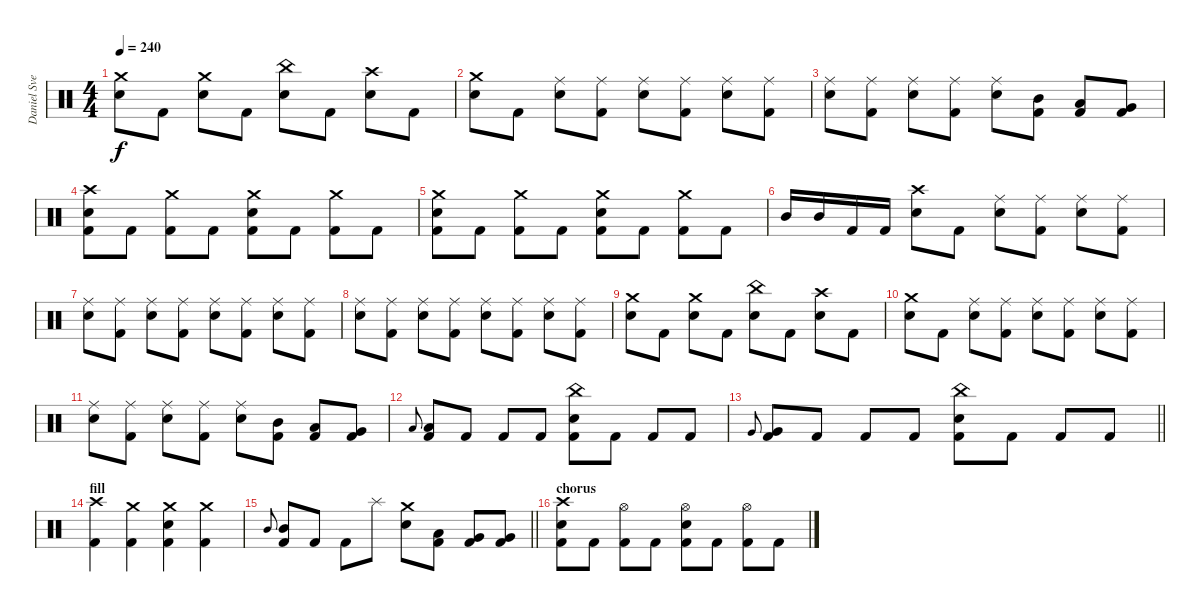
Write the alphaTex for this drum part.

\track ("Daniel Svensson" "Daniel Sve") {instrument percussion}
\staff {score}
\articulation defaults
\ts (4 4)
\tempo 240
\clef neutral
\ks c
("Crash medium (hit)" "Electric Snare (hit)").8{dy f} "Kick (hit) 2".8 ("Crash medium (hit)" "Electric Snare (hit)").8 "Kick (hit) 2".8 ("China (hit)" "Electric Snare (hit)").8 "Kick (hit) 2".8 ("Crash high (hit)" "Electric Snare (hit)").8 "Kick (hit) 2".8 |
("Crash medium (hit)" "Electric Snare (hit)").8 "Kick (hit) 2".8 ("Ride (middle)" "Electric Snare (hit)").8 ("Ride (middle)" "Kick (hit) 2").8 ("Ride (middle)" "Electric Snare (hit)").8 ("Ride (middle)" "Kick (hit) 2").8 ("Ride (middle)" "Electric Snare (hit)").8 ("Ride (middle)" "Kick (hit) 2").8 |
("Ride (middle)" "Electric Snare (hit)").8 ("Ride (middle)" "Kick (hit) 2").8 ("Ride (middle)" "Electric Snare (hit)").8 ("Ride (middle)" "Kick (hit) 2").8 ("Ride (middle)" "Electric Snare (hit)").8 ("Mid Tom (hit)" "Kick (hit) 2").8 ("Low Tom (hit)" "Kick (hit) 2").8 ("Very Low Tom (hit)" "Kick (hit) 2").8 |
("Crash high (hit)" "Electric Snare (hit)" "Kick (hit) 2").8 "Kick (hit) 2".8 ("Crash medium (hit)" "Kick (hit) 2").8 "Kick (hit) 2".8 ("Crash medium (hit)" "Electric Snare (hit)" "Kick (hit) 2").8 "Kick (hit) 2".8 ("Crash medium (hit)" "Kick (hit) 2").8 "Kick (hit) 2".8 |
("Crash medium (hit)" "Electric Snare (hit)" "Kick (hit) 2").8 "Kick (hit) 2".8 ("Crash medium (hit)" "Kick (hit) 2").8 "Kick (hit) 2".8 ("Crash medium (hit)" "Electric Snare (hit)" "Kick (hit) 2").8 "Kick (hit) 2".8 ("Crash medium (hit)" "Kick (hit) 2").8 "Kick (hit) 2".8 |
"Mid Tom (hit)".16 "Mid Tom (hit)".16 "Kick (hit) 2".16 "Kick (hit) 2".16 ("Crash high (hit)" "Electric Snare (hit)").8 "Kick (hit) 2".8 ("Ride (middle)" "Electric Snare (hit)").8 ("Ride (middle)" "Kick (hit) 2").8 ("Ride (middle)" "Electric Snare (hit)").8 ("Ride (middle)" "Kick (hit) 2").8 |
("Ride (middle)" "Electric Snare (hit)").8 ("Ride (middle)" "Kick (hit) 2").8 ("Ride (middle)" "Electric Snare (hit)").8 ("Ride (middle)" "Kick (hit) 2").8 ("Ride (middle)" "Electric Snare (hit)").8 ("Ride (middle)" "Kick (hit) 2").8 ("Ride (middle)" "Electric Snare (hit)").8 ("Ride (middle)" "Kick (hit) 2").8 |
("Ride (middle)" "Electric Snare (hit)").8 ("Ride (middle)" "Kick (hit) 2").8 ("Ride (middle)" "Electric Snare (hit)").8 ("Ride (middle)" "Kick (hit) 2").8 ("Ride (middle)" "Electric Snare (hit)").8 ("Ride (middle)" "Kick (hit) 2").8 ("Ride (middle)" "Electric Snare (hit)").8 ("Ride (middle)" "Kick (hit) 2").8 |
("Crash medium (hit)" "Electric Snare (hit)").8 "Kick (hit) 2".8 ("Crash medium (hit)" "Electric Snare (hit)").8 "Kick (hit) 2".8 ("China (hit)" "Electric Snare (hit)").8 "Kick (hit) 2".8 ("Crash high (hit)" "Electric Snare (hit)").8 "Kick (hit) 2".8 |
("Crash medium (hit)" "Electric Snare (hit)").8 "Kick (hit) 2".8 ("Ride (middle)" "Electric Snare (hit)").8 ("Ride (middle)" "Kick (hit) 2").8 ("Ride (middle)" "Electric Snare (hit)").8 ("Ride (middle)" "Kick (hit) 2").8 ("Ride (middle)" "Electric Snare (hit)").8 ("Ride (middle)" "Kick (hit) 2").8 |
("Ride (middle)" "Electric Snare (hit)").8 ("Ride (middle)" "Kick (hit) 2").8 ("Ride (middle)" "Electric Snare (hit)").8 ("Ride (middle)" "Kick (hit) 2").8 ("Ride (middle)" "Electric Snare (hit)").8 ("Mid Tom (hit)" "Kick (hit) 2").8 ("Low Tom (hit)" "Kick (hit) 2").8 ("Very Low Tom (hit)" "Kick (hit) 2").8 |
"Low Tom (hit)".8{gr onbeat} ("Low Tom (hit)" "Kick (hit) 2").8 "Kick (hit) 2".8 "Kick (hit) 2".8 "Kick (hit) 2".8 ("China (hit)" "Electric Snare (hit)" "Kick (hit) 2").8 "Kick (hit) 2".8 "Kick (hit) 2".8 "Kick (hit) 2".8 |
\barLineRight lightlight "Very Low Tom (hit)".8{gr onbeat}
("Very Low Tom (hit)" "Kick (hit) 2").8 "Kick (hit) 2".8 "Kick (hit) 2".8 "Kick (hit) 2".8 ("China (hit)" "Electric Snare (hit)" "Kick (hit) 2").8 "Kick (hit) 2".8 "Kick (hit) 2".8 "Kick (hit) 2".8 |
\section ("" "fill")
("Crash high (hit)" "Kick (hit) 2").4 ("Crash medium (hit)" "Kick (hit) 2").4 ("Crash medium (hit)" "Electric Snare (hit)" "Kick (hit) 2").4 ("Crash medium (hit)" "Kick (hit) 2").4 |
\barLineRight lightlight "Mid Tom (hit)".8{gr onbeat}
("Mid Tom (hit)" "Kick (hit) 2").8 "Kick (hit) 2".8 "Kick (hit) 2".8 "Splash (hit)".8 ("Crash medium (hit)" "Electric Snare (hit)").8 ("Low Tom (hit)" "Kick (hit) 2").8 ("Very Low Tom (hit)" "Kick (hit) 2").8 ("Very Low Tom (hit)" "Kick (hit) 2").8 |
\section ("" "chorus")
("Crash high (hit)" "Electric Snare (hit)" "Kick (hit) 2").8 "Kick (hit) 2".8 ("Hi-Hat (open)" "Kick (hit) 2").8 "Kick (hit) 2".8 ("Hi-Hat (open)" "Electric Snare (hit)" "Kick (hit) 2").8 "Kick (hit) 2".8 ("Hi-Hat (open)" "Kick (hit) 2").8 "Kick (hit) 2".8
